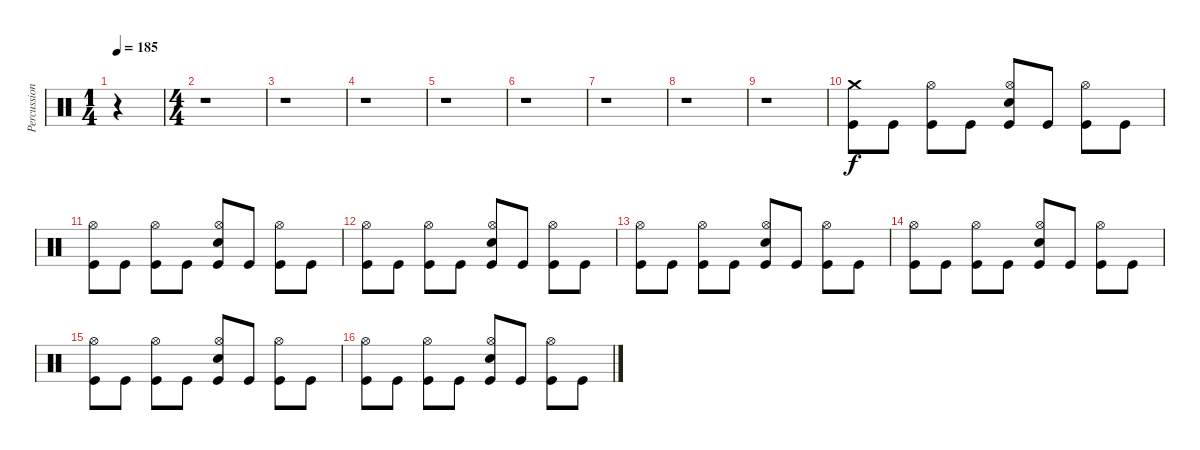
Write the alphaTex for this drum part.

\track ("Percussions" "Percussion") {instrument percussion}
\staff {score}
\articulation defaults
\ts (1 4)
\tempo 185
\clef neutral
\ks c
r.4{dy f} |
\ts (4 4)
r.1 |
r.1 |
r.1 |
r.1 |
r.1 |
r.1 |
r.1 |
r.1 |
("Kick (hit)" "Crash medium (hit)").8 "Kick (hit)".8 ("Kick (hit)" "Hi-Hat (open)").8 "Kick (hit)".8 ("Kick (hit)" "Electric Snare (hit)" "Hi-Hat (open)").8 "Kick (hit)".8 ("Kick (hit)" "Hi-Hat (open)").8 "Kick (hit)".8 |
("Kick (hit)" "Hi-Hat (open)").8 "Kick (hit)".8 ("Kick (hit)" "Hi-Hat (open)").8 "Kick (hit)".8 ("Kick (hit)" "Electric Snare (hit)" "Hi-Hat (open)").8 "Kick (hit)".8 ("Kick (hit)" "Hi-Hat (open)").8 "Kick (hit)".8 |
("Kick (hit)" "Hi-Hat (open)").8 "Kick (hit)".8 ("Kick (hit)" "Hi-Hat (open)").8 "Kick (hit)".8 ("Kick (hit)" "Electric Snare (hit)" "Hi-Hat (open)").8 "Kick (hit)".8 ("Kick (hit)" "Hi-Hat (open)").8 "Kick (hit)".8 |
("Kick (hit)" "Hi-Hat (open)").8 "Kick (hit)".8 ("Kick (hit)" "Hi-Hat (open)").8 "Kick (hit)".8 ("Kick (hit)" "Electric Snare (hit)" "Hi-Hat (open)").8 "Kick (hit)".8 ("Kick (hit)" "Hi-Hat (open)").8 "Kick (hit)".8 |
("Kick (hit)" "Hi-Hat (open)").8 "Kick (hit)".8 ("Kick (hit)" "Hi-Hat (open)").8 "Kick (hit)".8 ("Kick (hit)" "Electric Snare (hit)" "Hi-Hat (open)").8 "Kick (hit)".8 ("Kick (hit)" "Hi-Hat (open)").8 "Kick (hit)".8 |
("Kick (hit)" "Hi-Hat (open)").8 "Kick (hit)".8 ("Kick (hit)" "Hi-Hat (open)").8 "Kick (hit)".8 ("Kick (hit)" "Electric Snare (hit)" "Hi-Hat (open)").8 "Kick (hit)".8 ("Kick (hit)" "Hi-Hat (open)").8 "Kick (hit)".8 |
("Kick (hit)" "Hi-Hat (open)").8 "Kick (hit)".8 ("Kick (hit)" "Hi-Hat (open)").8 "Kick (hit)".8 ("Kick (hit)" "Electric Snare (hit)" "Hi-Hat (open)").8 "Kick (hit)".8 ("Kick (hit)" "Hi-Hat (open)").8 "Kick (hit)".8
